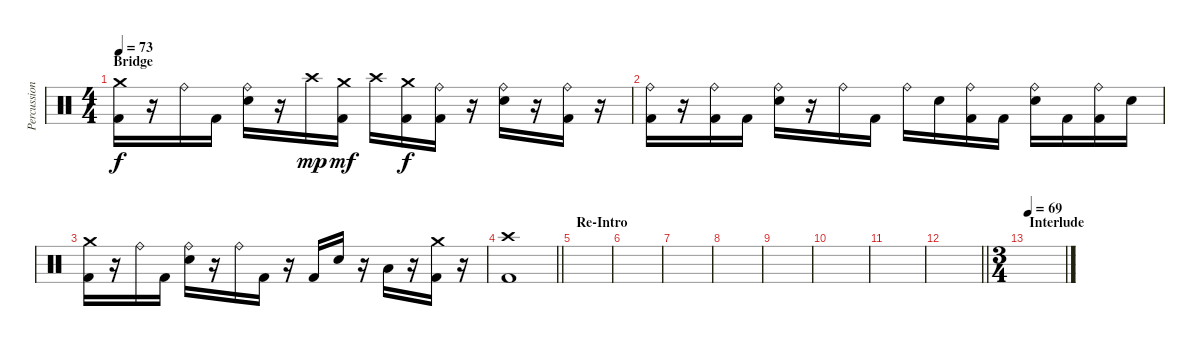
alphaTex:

\track ("Percussion" "Percussion") {instrument percussion}
\staff {score}
\articulation defaults
\ts (4 4)
\section ("" "Bridge")
\tempo 73
\clef neutral
\ks c
("Crash medium (hit)" "Kick (hit) 2").16{dy f} r.16 "Ride (bell)".16 "Kick (hit) 2".16 ("Ride (bell)" "Snare (hit) 2").16 r.16 "Crash high (hit)".16{dy mp} ("Crash medium (hit)" "Kick (hit) 2").16{dy mf} "Crash high (hit)".16 ("Crash medium (hit)" "Kick (hit) 2").16{dy f} ("Ride (bell)" "Kick (hit) 2").16 r.16 ("Ride (bell)" "Snare (hit) 2").16 r.16 ("Ride (bell)" "Kick (hit) 2").16 r.16 |
("Ride (bell)" "Kick (hit) 2").16 r.16 ("Ride (bell)" "Kick (hit) 2").16 "Kick (hit) 2".16 ("Ride (bell)" "Snare (hit) 2").16 r.16 "Ride (bell)".16 "Kick (hit) 2".16 "Ride (bell)".16 "Snare (hit) 2".16 ("Ride (bell)" "Kick (hit) 2").16 "Kick (hit) 2".16 ("Ride (bell)" "Snare (hit) 2").16 "Kick (hit) 2".16 ("Ride (bell)" "Kick (hit) 2").16 "Snare (hit) 2".16 |
("Crash medium (hit)" "Kick (hit) 2").16 r.16 "Ride (bell)".16 "Kick (hit) 2".16 ("Ride (bell)" "Snare (hit) 2").16 r.16 "Ride (bell)".16 "Kick (hit) 2".16 r.16 "Kick (hit) 2".16 "Snare (hit) 2".16 r.16 "Low Tom (hit)".16 r.16 ("Crash medium (hit)" "Kick (hit) 2").16 r.16 |
\barLineRight lightlight
("Crash high (hit)" "Kick (hit) 2").1 |
\section ("" "Re-Intro")
|
|
|
|
|
|
|
\barLineRight lightlight
|
\ts (3 4)
\section ("" "Interlude")
\tempo 69
